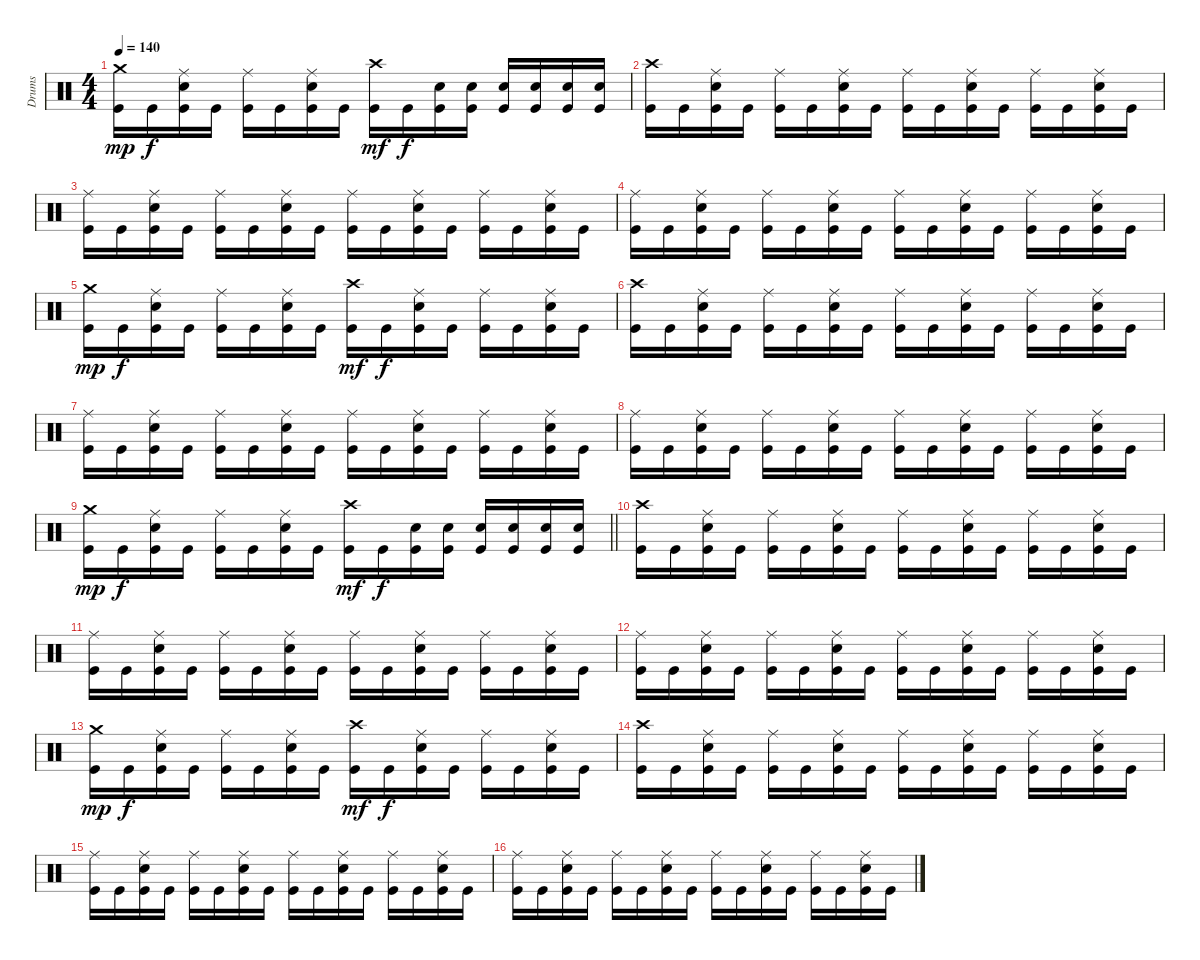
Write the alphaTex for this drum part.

\track ("Drums" "Drums") {instrument percussion}
\staff {score}
\articulation defaults
\ts (4 4)
\tempo 140
\clef neutral
\ks c
("Crash medium (hit)" "Kick (hit)").16{dy mp} "Kick (hit)".16{dy f} ("Ride (middle)" "Electric Snare (hit)" "Kick (hit)").16 "Kick (hit)".16 ("Ride (middle)" "Kick (hit)").16 "Kick (hit)".16 ("Ride (middle)" "Electric Snare (hit)" "Kick (hit)").16 "Kick (hit)".16 ("Crash high (hit)" "Kick (hit)").16{dy mf} "Kick (hit)".16{dy f} ("Electric Snare (hit)" "Kick (hit)").16 ("Electric Snare (hit)" "Kick (hit)").16 ("Electric Snare (hit)" "Kick (hit)").16 ("Electric Snare (hit)" "Kick (hit)").16 ("Electric Snare (hit)" "Kick (hit)").16 ("Electric Snare (hit)" "Kick (hit)").16 |
("Crash high (hit)" "Kick (hit)").16 "Kick (hit)".16 ("Ride (middle)" "Electric Snare (hit)" "Kick (hit)").16 "Kick (hit)".16 ("Ride (middle)" "Kick (hit)").16 "Kick (hit)".16 ("Ride (middle)" "Electric Snare (hit)" "Kick (hit)").16 "Kick (hit)".16 ("Ride (middle)" "Kick (hit)").16 "Kick (hit)".16 ("Ride (middle)" "Electric Snare (hit)" "Kick (hit)").16 "Kick (hit)".16 ("Ride (middle)" "Kick (hit)").16 "Kick (hit)".16 ("Ride (middle)" "Electric Snare (hit)" "Kick (hit)").16 "Kick (hit)".16 |
("Ride (middle)" "Kick (hit)").16 "Kick (hit)".16 ("Ride (middle)" "Electric Snare (hit)" "Kick (hit)").16 "Kick (hit)".16 ("Ride (middle)" "Kick (hit)").16 "Kick (hit)".16 ("Ride (middle)" "Electric Snare (hit)" "Kick (hit)").16 "Kick (hit)".16 ("Ride (middle)" "Kick (hit)").16 "Kick (hit)".16 ("Ride (middle)" "Electric Snare (hit)" "Kick (hit)").16 "Kick (hit)".16 ("Ride (middle)" "Kick (hit)").16 "Kick (hit)".16 ("Ride (middle)" "Electric Snare (hit)" "Kick (hit)").16 "Kick (hit)".16 |
("Ride (middle)" "Kick (hit)").16 "Kick (hit)".16 ("Ride (middle)" "Electric Snare (hit)" "Kick (hit)").16 "Kick (hit)".16 ("Ride (middle)" "Kick (hit)").16 "Kick (hit)".16 ("Ride (middle)" "Electric Snare (hit)" "Kick (hit)").16 "Kick (hit)".16 ("Ride (middle)" "Kick (hit)").16 "Kick (hit)".16 ("Ride (middle)" "Electric Snare (hit)" "Kick (hit)").16 "Kick (hit)".16 ("Ride (middle)" "Kick (hit)").16 "Kick (hit)".16 ("Ride (middle)" "Electric Snare (hit)" "Kick (hit)").16 "Kick (hit)".16 |
("Crash medium (hit)" "Kick (hit)").16{dy mp} "Kick (hit)".16{dy f} ("Ride (middle)" "Electric Snare (hit)" "Kick (hit)").16 "Kick (hit)".16 ("Ride (middle)" "Kick (hit)").16 "Kick (hit)".16 ("Ride (middle)" "Electric Snare (hit)" "Kick (hit)").16 "Kick (hit)".16 ("Crash high (hit)" "Kick (hit)").16{dy mf} "Kick (hit)".16{dy f} ("Ride (middle)" "Electric Snare (hit)" "Kick (hit)").16 "Kick (hit)".16 ("Ride (middle)" "Kick (hit)").16 "Kick (hit)".16 ("Ride (middle)" "Electric Snare (hit)" "Kick (hit)").16 "Kick (hit)".16 |
("Crash high (hit)" "Kick (hit)").16 "Kick (hit)".16 ("Ride (middle)" "Electric Snare (hit)" "Kick (hit)").16 "Kick (hit)".16 ("Ride (middle)" "Kick (hit)").16 "Kick (hit)".16 ("Ride (middle)" "Electric Snare (hit)" "Kick (hit)").16 "Kick (hit)".16 ("Ride (middle)" "Kick (hit)").16 "Kick (hit)".16 ("Ride (middle)" "Electric Snare (hit)" "Kick (hit)").16 "Kick (hit)".16 ("Ride (middle)" "Kick (hit)").16 "Kick (hit)".16 ("Ride (middle)" "Electric Snare (hit)" "Kick (hit)").16 "Kick (hit)".16 |
("Ride (middle)" "Kick (hit)").16 "Kick (hit)".16 ("Ride (middle)" "Electric Snare (hit)" "Kick (hit)").16 "Kick (hit)".16 ("Ride (middle)" "Kick (hit)").16 "Kick (hit)".16 ("Ride (middle)" "Electric Snare (hit)" "Kick (hit)").16 "Kick (hit)".16 ("Ride (middle)" "Kick (hit)").16 "Kick (hit)".16 ("Ride (middle)" "Electric Snare (hit)" "Kick (hit)").16 "Kick (hit)".16 ("Ride (middle)" "Kick (hit)").16 "Kick (hit)".16 ("Ride (middle)" "Electric Snare (hit)" "Kick (hit)").16 "Kick (hit)".16 |
("Ride (middle)" "Kick (hit)").16 "Kick (hit)".16 ("Ride (middle)" "Electric Snare (hit)" "Kick (hit)").16 "Kick (hit)".16 ("Ride (middle)" "Kick (hit)").16 "Kick (hit)".16 ("Ride (middle)" "Electric Snare (hit)" "Kick (hit)").16 "Kick (hit)".16 ("Ride (middle)" "Kick (hit)").16 "Kick (hit)".16 ("Ride (middle)" "Electric Snare (hit)" "Kick (hit)").16 "Kick (hit)".16 ("Ride (middle)" "Kick (hit)").16 "Kick (hit)".16 ("Ride (middle)" "Electric Snare (hit)" "Kick (hit)").16 "Kick (hit)".16 |
\barLineRight lightlight
("Crash medium (hit)" "Kick (hit)").16{dy mp} "Kick (hit)".16{dy f} ("Ride (middle)" "Electric Snare (hit)" "Kick (hit)").16 "Kick (hit)".16 ("Ride (middle)" "Kick (hit)").16 "Kick (hit)".16 ("Ride (middle)" "Electric Snare (hit)" "Kick (hit)").16 "Kick (hit)".16 ("Crash high (hit)" "Kick (hit)").16{dy mf} "Kick (hit)".16{dy f} ("Electric Snare (hit)" "Kick (hit)").16 ("Electric Snare (hit)" "Kick (hit)").16 ("Electric Snare (hit)" "Kick (hit)").16 ("Electric Snare (hit)" "Kick (hit)").16 ("Electric Snare (hit)" "Kick (hit)").16 ("Electric Snare (hit)" "Kick (hit)").16 |
("Crash high (hit)" "Kick (hit)").16 "Kick (hit)".16 ("Ride (middle)" "Electric Snare (hit)" "Kick (hit)").16 "Kick (hit)".16 ("Ride (middle)" "Kick (hit)").16 "Kick (hit)".16 ("Ride (middle)" "Electric Snare (hit)" "Kick (hit)").16 "Kick (hit)".16 ("Ride (middle)" "Kick (hit)").16 "Kick (hit)".16 ("Ride (middle)" "Electric Snare (hit)" "Kick (hit)").16 "Kick (hit)".16 ("Ride (middle)" "Kick (hit)").16 "Kick (hit)".16 ("Ride (middle)" "Electric Snare (hit)" "Kick (hit)").16 "Kick (hit)".16 |
("Ride (middle)" "Kick (hit)").16 "Kick (hit)".16 ("Ride (middle)" "Electric Snare (hit)" "Kick (hit)").16 "Kick (hit)".16 ("Ride (middle)" "Kick (hit)").16 "Kick (hit)".16 ("Ride (middle)" "Electric Snare (hit)" "Kick (hit)").16 "Kick (hit)".16 ("Ride (middle)" "Kick (hit)").16 "Kick (hit)".16 ("Ride (middle)" "Electric Snare (hit)" "Kick (hit)").16 "Kick (hit)".16 ("Ride (middle)" "Kick (hit)").16 "Kick (hit)".16 ("Ride (middle)" "Electric Snare (hit)" "Kick (hit)").16 "Kick (hit)".16 |
("Ride (middle)" "Kick (hit)").16 "Kick (hit)".16 ("Ride (middle)" "Electric Snare (hit)" "Kick (hit)").16 "Kick (hit)".16 ("Ride (middle)" "Kick (hit)").16 "Kick (hit)".16 ("Ride (middle)" "Electric Snare (hit)" "Kick (hit)").16 "Kick (hit)".16 ("Ride (middle)" "Kick (hit)").16 "Kick (hit)".16 ("Ride (middle)" "Electric Snare (hit)" "Kick (hit)").16 "Kick (hit)".16 ("Ride (middle)" "Kick (hit)").16 "Kick (hit)".16 ("Ride (middle)" "Electric Snare (hit)" "Kick (hit)").16 "Kick (hit)".16 |
("Crash medium (hit)" "Kick (hit)").16{dy mp} "Kick (hit)".16{dy f} ("Ride (middle)" "Electric Snare (hit)" "Kick (hit)").16 "Kick (hit)".16 ("Ride (middle)" "Kick (hit)").16 "Kick (hit)".16 ("Ride (middle)" "Electric Snare (hit)" "Kick (hit)").16 "Kick (hit)".16 ("Crash high (hit)" "Kick (hit)").16{dy mf} "Kick (hit)".16{dy f} ("Ride (middle)" "Electric Snare (hit)" "Kick (hit)").16 "Kick (hit)".16 ("Ride (middle)" "Kick (hit)").16 "Kick (hit)".16 ("Ride (middle)" "Electric Snare (hit)" "Kick (hit)").16 "Kick (hit)".16 |
("Crash high (hit)" "Kick (hit)").16 "Kick (hit)".16 ("Ride (middle)" "Electric Snare (hit)" "Kick (hit)").16 "Kick (hit)".16 ("Ride (middle)" "Kick (hit)").16 "Kick (hit)".16 ("Ride (middle)" "Electric Snare (hit)" "Kick (hit)").16 "Kick (hit)".16 ("Ride (middle)" "Kick (hit)").16 "Kick (hit)".16 ("Ride (middle)" "Electric Snare (hit)" "Kick (hit)").16 "Kick (hit)".16 ("Ride (middle)" "Kick (hit)").16 "Kick (hit)".16 ("Ride (middle)" "Electric Snare (hit)" "Kick (hit)").16 "Kick (hit)".16 |
("Ride (middle)" "Kick (hit)").16 "Kick (hit)".16 ("Ride (middle)" "Electric Snare (hit)" "Kick (hit)").16 "Kick (hit)".16 ("Ride (middle)" "Kick (hit)").16 "Kick (hit)".16 ("Ride (middle)" "Electric Snare (hit)" "Kick (hit)").16 "Kick (hit)".16 ("Ride (middle)" "Kick (hit)").16 "Kick (hit)".16 ("Ride (middle)" "Electric Snare (hit)" "Kick (hit)").16 "Kick (hit)".16 ("Ride (middle)" "Kick (hit)").16 "Kick (hit)".16 ("Ride (middle)" "Electric Snare (hit)" "Kick (hit)").16 "Kick (hit)".16 |
("Ride (middle)" "Kick (hit)").16 "Kick (hit)".16 ("Ride (middle)" "Electric Snare (hit)" "Kick (hit)").16 "Kick (hit)".16 ("Ride (middle)" "Kick (hit)").16 "Kick (hit)".16 ("Ride (middle)" "Electric Snare (hit)" "Kick (hit)").16 "Kick (hit)".16 ("Ride (middle)" "Kick (hit)").16 "Kick (hit)".16 ("Ride (middle)" "Electric Snare (hit)" "Kick (hit)").16 "Kick (hit)".16 ("Ride (middle)" "Kick (hit)").16 "Kick (hit)".16 ("Ride (middle)" "Electric Snare (hit)" "Kick (hit)").16 "Kick (hit)".16
